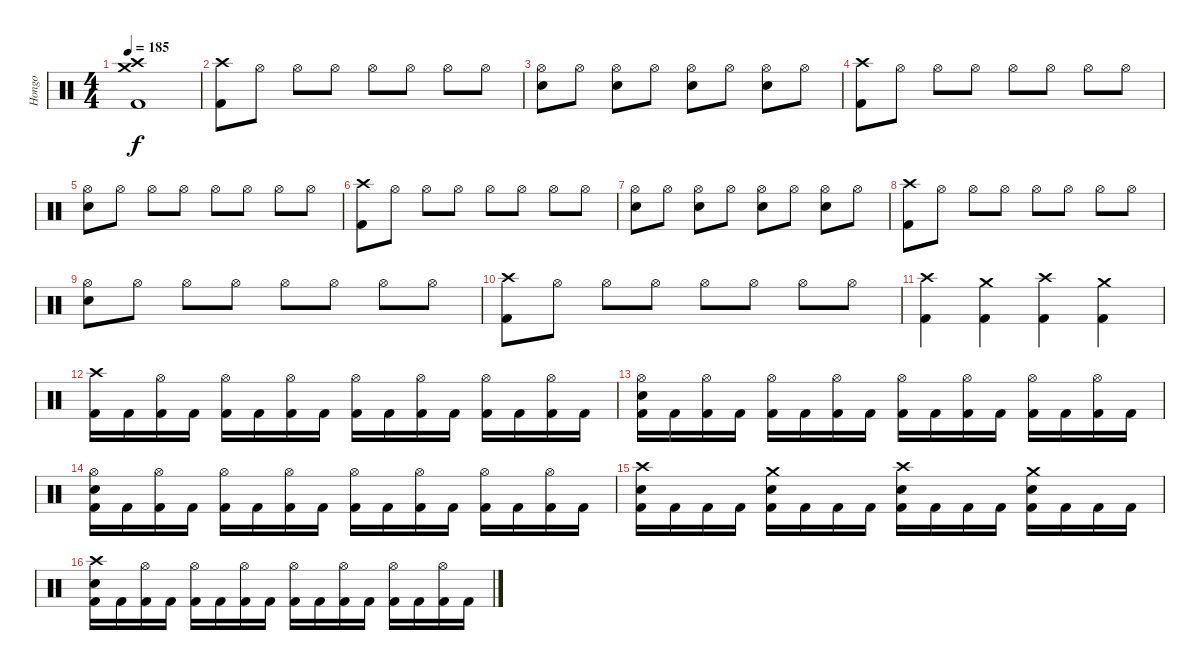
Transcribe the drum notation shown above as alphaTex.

\track ("Hongo" "Hongo") {instrument percussion}
\staff {score}
\articulation defaults
\ts (4 4)
\tempo 185
\clef neutral
\ks c
("Crash high (hit)" "Crash medium (hit)" "Kick (hit) 2").1{dy f} |
("Crash high (hit)" "Kick (hit) 2").8 "Hi-Hat (open)".8 "Hi-Hat (open)".8 "Hi-Hat (open)".8 "Hi-Hat (open)".8 "Hi-Hat (open)".8 "Hi-Hat (open)".8 "Hi-Hat (open)".8 |
("Hi-Hat (open)" "Electric Snare (hit)").8 "Hi-Hat (open)".8 ("Hi-Hat (open)" "Electric Snare (hit)").8 "Hi-Hat (open)".8 ("Hi-Hat (open)" "Electric Snare (hit)").8 "Hi-Hat (open)".8 ("Hi-Hat (open)" "Electric Snare (hit)").8 "Hi-Hat (open)".8 |
("Crash high (hit)" "Kick (hit) 2").8 "Hi-Hat (open)".8 "Hi-Hat (open)".8 "Hi-Hat (open)".8 "Hi-Hat (open)".8 "Hi-Hat (open)".8 "Hi-Hat (open)".8 "Hi-Hat (open)".8 |
("Hi-Hat (open)" "Electric Snare (hit)").8 "Hi-Hat (open)".8 "Hi-Hat (open)".8 "Hi-Hat (open)".8 "Hi-Hat (open)".8 "Hi-Hat (open)".8 "Hi-Hat (open)".8 "Hi-Hat (open)".8 |
("Crash high (hit)" "Kick (hit) 2").8 "Hi-Hat (open)".8 "Hi-Hat (open)".8 "Hi-Hat (open)".8 "Hi-Hat (open)".8 "Hi-Hat (open)".8 "Hi-Hat (open)".8 "Hi-Hat (open)".8 |
("Hi-Hat (open)" "Electric Snare (hit)").8 "Hi-Hat (open)".8 ("Hi-Hat (open)" "Electric Snare (hit)").8 "Hi-Hat (open)".8 ("Hi-Hat (open)" "Electric Snare (hit)").8 "Hi-Hat (open)".8 ("Hi-Hat (open)" "Electric Snare (hit)").8 "Hi-Hat (open)".8 |
("Crash high (hit)" "Kick (hit) 2").8 "Hi-Hat (open)".8 "Hi-Hat (open)".8 "Hi-Hat (open)".8 "Hi-Hat (open)".8 "Hi-Hat (open)".8 "Hi-Hat (open)".8 "Hi-Hat (open)".8 |
("Hi-Hat (open)" "Electric Snare (hit)").8 "Hi-Hat (open)".8 "Hi-Hat (open)".8 "Hi-Hat (open)".8 "Hi-Hat (open)".8 "Hi-Hat (open)".8 "Hi-Hat (open)".8 "Hi-Hat (open)".8 |
("Crash high (hit)" "Kick (hit) 2").8 "Hi-Hat (open)".8 "Hi-Hat (open)".8 "Hi-Hat (open)".8 "Hi-Hat (open)".8 "Hi-Hat (open)".8 "Hi-Hat (open)".8 "Hi-Hat (open)".8 |
("Crash high (hit)" "Kick (hit) 2").4 ("Crash medium (hit)" "Kick (hit) 2").4 ("Crash high (hit)" "Kick (hit) 2").4 ("Crash medium (hit)" "Kick (hit) 2").4 |
("Crash high (hit)" "Kick (hit) 2").16 "Kick (hit) 2".16 ("Hi-Hat (open)" "Kick (hit) 2").16 "Kick (hit) 2".16 ("Hi-Hat (open)" "Kick (hit) 2").16 "Kick (hit) 2".16 ("Hi-Hat (open)" "Kick (hit) 2").16 "Kick (hit) 2".16 ("Hi-Hat (open)" "Kick (hit) 2").16 "Kick (hit) 2".16 ("Hi-Hat (open)" "Kick (hit) 2").16 "Kick (hit) 2".16 ("Hi-Hat (open)" "Kick (hit) 2").16 "Kick (hit) 2".16 ("Hi-Hat (open)" "Kick (hit) 2").16 "Kick (hit) 2".16 |
("Hi-Hat (open)" "Electric Snare (hit)" "Kick (hit) 2").16 "Kick (hit) 2".16 ("Hi-Hat (open)" "Kick (hit) 2").16 "Kick (hit) 2".16 ("Hi-Hat (open)" "Kick (hit) 2").16 "Kick (hit) 2".16 ("Hi-Hat (open)" "Kick (hit) 2").16 "Kick (hit) 2".16 ("Hi-Hat (open)" "Kick (hit) 2").16 "Kick (hit) 2".16 ("Hi-Hat (open)" "Kick (hit) 2").16 "Kick (hit) 2".16 ("Hi-Hat (open)" "Kick (hit) 2").16 "Kick (hit) 2".16 ("Hi-Hat (open)" "Kick (hit) 2").16 "Kick (hit) 2".16 |
("Hi-Hat (open)" "Electric Snare (hit)" "Kick (hit) 2").16 "Kick (hit) 2".16 ("Hi-Hat (open)" "Kick (hit) 2").16 "Kick (hit) 2".16 ("Hi-Hat (open)" "Kick (hit) 2").16 "Kick (hit) 2".16 ("Hi-Hat (open)" "Kick (hit) 2").16 "Kick (hit) 2".16 ("Hi-Hat (open)" "Kick (hit) 2").16 "Kick (hit) 2".16 ("Hi-Hat (open)" "Kick (hit) 2").16 "Kick (hit) 2".16 ("Hi-Hat (open)" "Kick (hit) 2").16 "Kick (hit) 2".16 ("Hi-Hat (open)" "Kick (hit) 2").16 "Kick (hit) 2".16 |
("Crash high (hit)" "Electric Snare (hit)" "Kick (hit) 2").16 "Kick (hit) 2".16 "Kick (hit) 2".16 "Kick (hit) 2".16 ("Crash medium (hit)" "Electric Snare (hit)" "Kick (hit) 2").16 "Kick (hit) 2".16 "Kick (hit) 2".16 "Kick (hit) 2".16 ("Crash high (hit)" "Electric Snare (hit)" "Kick (hit) 2").16 "Kick (hit) 2".16 "Kick (hit) 2".16 "Kick (hit) 2".16 ("Crash medium (hit)" "Electric Snare (hit)" "Kick (hit) 2").16 "Kick (hit) 2".16 "Kick (hit) 2".16 "Kick (hit) 2".16 |
("Crash high (hit)" "Electric Snare (hit)" "Kick (hit) 2").16 "Kick (hit) 2".16 ("Hi-Hat (open)" "Kick (hit) 2").16 "Kick (hit) 2".16 ("Hi-Hat (open)" "Kick (hit) 2").16 "Kick (hit) 2".16 ("Hi-Hat (open)" "Kick (hit) 2").16 "Kick (hit) 2".16 ("Hi-Hat (open)" "Kick (hit) 2").16 "Kick (hit) 2".16 ("Hi-Hat (open)" "Kick (hit) 2").16 "Kick (hit) 2".16 ("Hi-Hat (open)" "Kick (hit) 2").16 "Kick (hit) 2".16 ("Hi-Hat (open)" "Kick (hit) 2").16 "Kick (hit) 2".16
